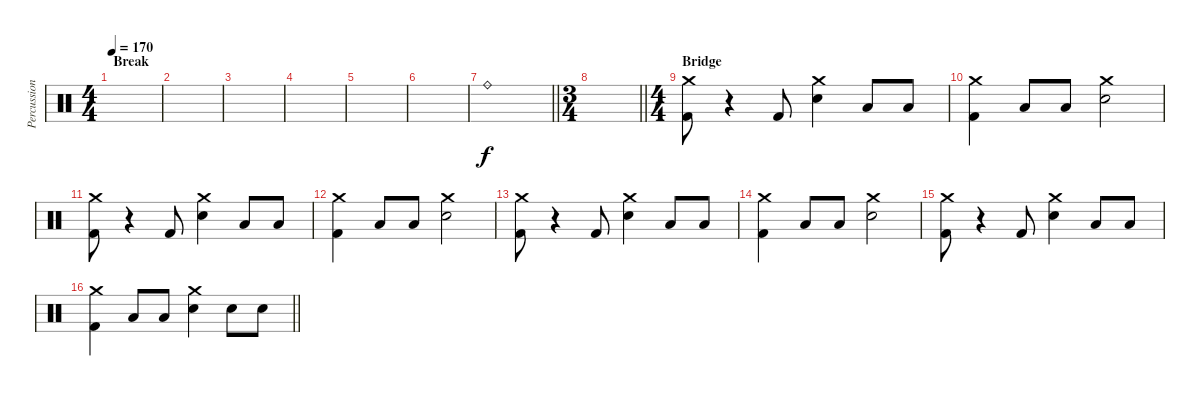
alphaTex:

\track ("Percussion" "Percussion") {instrument percussion}
\staff {score}
\articulation defaults
\ts (4 4)
\section ("" "Break")
\tempo 170
\clef neutral
\ks c
|
|
|
|
|
|
\barLineRight lightlight "Ride (bell)".1
|
\ts (3 4)
\barLineRight lightlight
|
\ts (4 4)
\section ("" "Bridge")
("Crash medium (hit)" "Kick (hit) 2").8 r.4 "Kick (hit) 2".8 ("Crash medium (hit)" "Electric Snare (hit)").4 "Low Tom (hit)".8 "Low Floor Tom (hit)".8 |
("Crash medium (hit)" "Kick (hit) 2").4 "Low Tom (hit)".8 "Low Floor Tom (hit)".8 ("Crash medium (hit)" "Electric Snare (hit)").2 |
("Crash medium (hit)" "Kick (hit) 2").8 r.4 "Kick (hit) 2".8 ("Crash medium (hit)" "Electric Snare (hit)").4 "Low Tom (hit)".8 "Low Floor Tom (hit)".8 |
("Crash medium (hit)" "Kick (hit) 2").4 "Low Tom (hit)".8 "Low Floor Tom (hit)".8 ("Crash medium (hit)" "Electric Snare (hit)").2 |
("Crash medium (hit)" "Kick (hit) 2").8 r.4 "Kick (hit) 2".8 ("Crash medium (hit)" "Electric Snare (hit)").4 "Low Tom (hit)".8 "Low Floor Tom (hit)".8 |
("Crash medium (hit)" "Kick (hit) 2").4 "Low Tom (hit)".8 "Low Floor Tom (hit)".8 ("Crash medium (hit)" "Electric Snare (hit)").2 |
("Crash medium (hit)" "Kick (hit) 2").8 r.4 "Kick (hit) 2".8 ("Crash medium (hit)" "Electric Snare (hit)").4 "Low Tom (hit)".8 "Low Floor Tom (hit)".8 |
\barLineRight lightlight
("Crash medium (hit)" "Kick (hit) 2").4 "Low Tom (hit)".8 "Low Floor Tom (hit)".8 ("Crash medium (hit)" "Electric Snare (hit)").4 "Electric Snare (hit)".8 "Electric Snare (hit)".8
